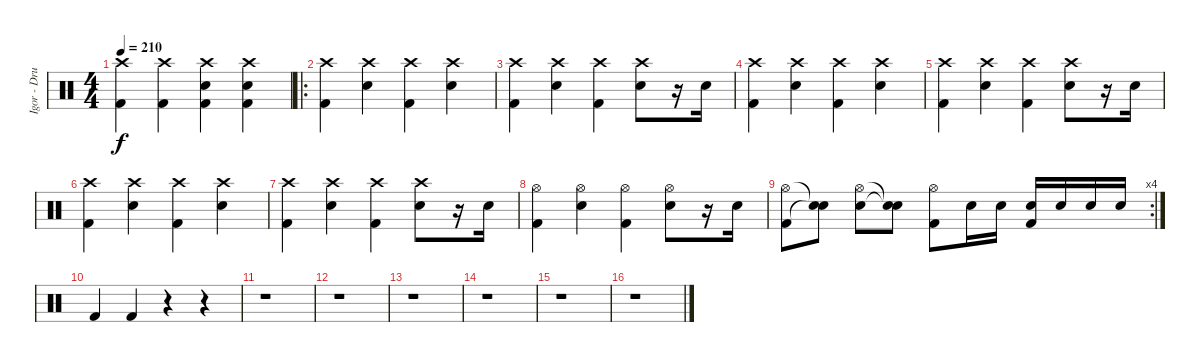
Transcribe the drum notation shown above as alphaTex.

\track ("Igor - Drums" "Igor - Dru") {instrument percussion}
\staff {score}
\articulation defaults
\ts (4 4)
\tempo 210
\clef neutral
\ks c
("Crash high (hit)" "Kick (hit) 2").4{dy f} ("Crash high (hit)" "Kick (hit) 2").4 ("Crash high (hit)" "Snare (hit) 2" "Kick (hit) 2").4 ("Crash high (hit)" "Snare (hit) 2" "Kick (hit) 2").4 |
\ro
("Crash high (hit)" "Kick (hit) 2").4 ("Crash high (hit)" "Snare (hit) 2").4 ("Crash high (hit)" "Kick (hit) 2").4 ("Crash high (hit)" "Snare (hit) 2").4 |
("Crash high (hit)" "Kick (hit) 2").4 ("Crash high (hit)" "Snare (hit) 2").4 ("Crash high (hit)" "Kick (hit) 2").4 ("Crash high (hit)" "Snare (hit) 2").8 r.16 "Snare (hit) 2".16 |
("Crash high (hit)" "Kick (hit) 2").4 ("Crash high (hit)" "Snare (hit) 2").4 ("Crash high (hit)" "Kick (hit) 2").4 ("Crash high (hit)" "Snare (hit) 2").4 |
("Crash high (hit)" "Kick (hit) 2").4 ("Crash high (hit)" "Snare (hit) 2").4 ("Crash high (hit)" "Kick (hit) 2").4 ("Crash high (hit)" "Snare (hit) 2").8 r.16 "Snare (hit) 2".16 |
("Crash high (hit)" "Kick (hit) 2").4 ("Crash high (hit)" "Snare (hit) 2").4 ("Crash high (hit)" "Kick (hit) 2").4 ("Crash high (hit)" "Snare (hit) 2").4 |
("Crash high (hit)" "Kick (hit) 2").4 ("Crash high (hit)" "Snare (hit) 2").4 ("Crash high (hit)" "Kick (hit) 2").4 ("Crash high (hit)" "Snare (hit) 2").8 r.16 "Snare (hit) 2".16 |
("Hi-Hat (open)" "Kick (hit) 2").4 ("Hi-Hat (open)" "Snare (hit) 2").4 ("Hi-Hat (open)" "Kick (hit) 2").4 ("Hi-Hat (open)" "Snare (hit) 2").8 r.16 "Snare (hit) 2".16 |
\rc 4
("Hi-Hat (open)" "Kick (hit) 2").8 ("Snare (hit)"{t} "Snare (hit)"{t}).8 ("Hi-Hat (open)" "Snare (hit) 2").8 ("Snare (hit)"{t} "Snare (hit)"{t}).8 ("Hi-Hat (open)" "Kick (hit) 2").8 "Snare (hit) 2".16 "Snare (hit) 2".16 ("Snare (hit) 2" "Kick (hit) 2").16 "Snare (hit) 2".16 "Snare (hit) 2".16 "Snare (hit) 2".16 |
"Kick (hit) 2".4 "Kick (hit) 2".4 r.4 r.4 |
r.1 |
r.1 |
r.1 |
r.1 |
r.1 |
r.1
